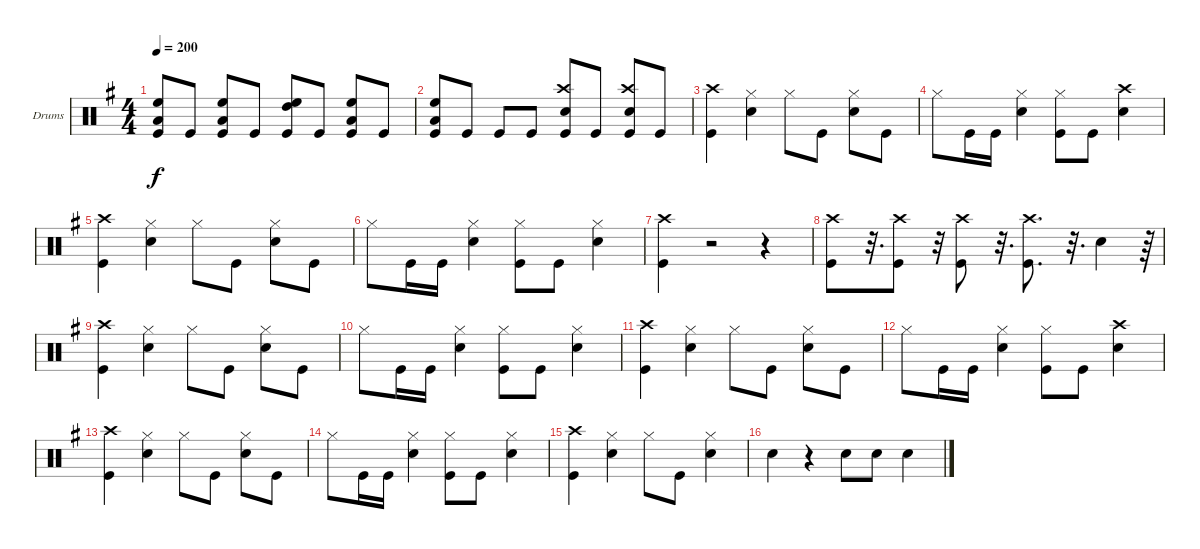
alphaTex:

\bracketExtendMode groupsimilarinstruments
\firstSystemTrackNameOrientation horizontal
\otherSystemsTrackNameOrientation horizontal
\track ("Drumkit" "Drums") {instrument percussion}
\staff {score}
\articulation defaults
\ts (4 4)
\tempo 200
\clef neutral
\ks g
("High Floor Tom (hit)" "Low Tom (hit)" "Kick (hit)").8{dy f} "Kick (hit)".8 ("Low Tom (hit)" "High Floor Tom (hit)" "Kick (hit)").8 "Kick (hit)".8 ("High Tom (hit)" "High Floor Tom (hit)" "Kick (hit)").8 "Kick (hit)".8 ("High Floor Tom (hit)" "Low Tom (hit)" "Kick (hit)").8 "Kick (hit)".8 |
("Low Tom (hit)" "High Floor Tom (hit)" "Kick (hit)").8 "Kick (hit)".8 "Kick (hit)".8 "Kick (hit)".8 ("Crash high (hit)" "Snare (hit) 2" "Kick (hit)").8 "Kick (hit)".8 ("Crash high (hit)" "Snare (hit) 2" "Kick (hit)").8 "Kick (hit)".8 |
("Kick (hit)" "Crash high (hit)").4 ("Hi-Hat (closed)" "Snare (hit) 2").4 "Hi-Hat (closed)".8 "Kick (hit)".8 ("Snare (hit) 2" "Hi-Hat (closed)").8 "Kick (hit)".8 |
"Hi-Hat (closed)".8 "Kick (hit)".16 "Kick (hit)".16 ("Snare (hit) 2" "Hi-Hat (closed)").4 ("Hi-Hat (closed)" "Kick (hit)").8 "Kick (hit)".8 ("Crash high (hit)" "Snare (hit) 2").4 |
("Kick (hit)" "Crash high (hit)").4 ("Hi-Hat (closed)" "Snare (hit) 2").4 "Hi-Hat (closed)".8 "Kick (hit)".8 ("Snare (hit) 2" "Hi-Hat (closed)").8 "Kick (hit)".8 |
"Hi-Hat (closed)".8 "Kick (hit)".16 "Kick (hit)".16 ("Snare (hit) 2" "Hi-Hat (closed)").4 ("Hi-Hat (closed)" "Kick (hit)").8 "Kick (hit)".8 ("Snare (hit) 2" "Hi-Hat (closed)").4 |
("Crash high (hit)" "Kick (hit)").4 r.2 r.4 |
("Kick (hit)" "Crash high (hit)").8 r.32{d} ("Kick (hit)" "Crash high (hit)").8 r.32 ("Kick (hit)" "Crash high (hit)").8 r.32{d} ("Kick (hit)" "Crash high (hit)").8{d} r.32{d} "Snare (hit) 2".4 r.64 |
("Kick (hit)" "Crash high (hit)").4 ("Snare (hit) 2" "Hi-Hat (closed)").4 "Hi-Hat (closed)".8 "Kick (hit)".8 ("Snare (hit) 2" "Hi-Hat (closed)").8 "Kick (hit)".8 |
"Hi-Hat (closed)".8 "Kick (hit)".16 "Kick (hit)".16 ("Snare (hit) 2" "Hi-Hat (closed)").4 ("Kick (hit)" "Hi-Hat (closed)").8 "Kick (hit)".8 ("Snare (hit) 2" "Hi-Hat (closed)").4 |
("Kick (hit)" "Crash high (hit)").4 ("Hi-Hat (closed)" "Snare (hit) 2").4 "Hi-Hat (closed)".8 "Kick (hit)".8 ("Snare (hit) 2" "Hi-Hat (closed)").8 "Kick (hit)".8 |
"Hi-Hat (closed)".8 "Kick (hit)".16 "Kick (hit)".16 ("Snare (hit) 2" "Hi-Hat (closed)").4 ("Kick (hit)" "Hi-Hat (closed)").8 "Kick (hit)".8 ("Crash high (hit)" "Snare (hit) 2").4 |
("Kick (hit)" "Crash high (hit)").4 ("Hi-Hat (closed)" "Snare (hit) 2").4 "Hi-Hat (closed)".8 "Kick (hit)".8 ("Snare (hit) 2" "Hi-Hat (closed)").8 "Kick (hit)".8 |
"Hi-Hat (closed)".8 "Kick (hit)".16 "Kick (hit)".16 ("Snare (hit) 2" "Hi-Hat (closed)").4 ("Kick (hit)" "Hi-Hat (closed)").8 "Kick (hit)".8 ("Snare (hit) 2" "Hi-Hat (closed)").4 |
("Kick (hit)" "Crash high (hit)").4 ("Hi-Hat (closed)" "Snare (hit) 2").4 "Hi-Hat (closed)".8 "Kick (hit)".8 ("Snare (hit) 2" "Hi-Hat (closed)").4 |
"Snare (hit) 2".4 r.4 "Snare (hit) 2".8 "Snare (hit) 2".8 "Snare (hit) 2".4
